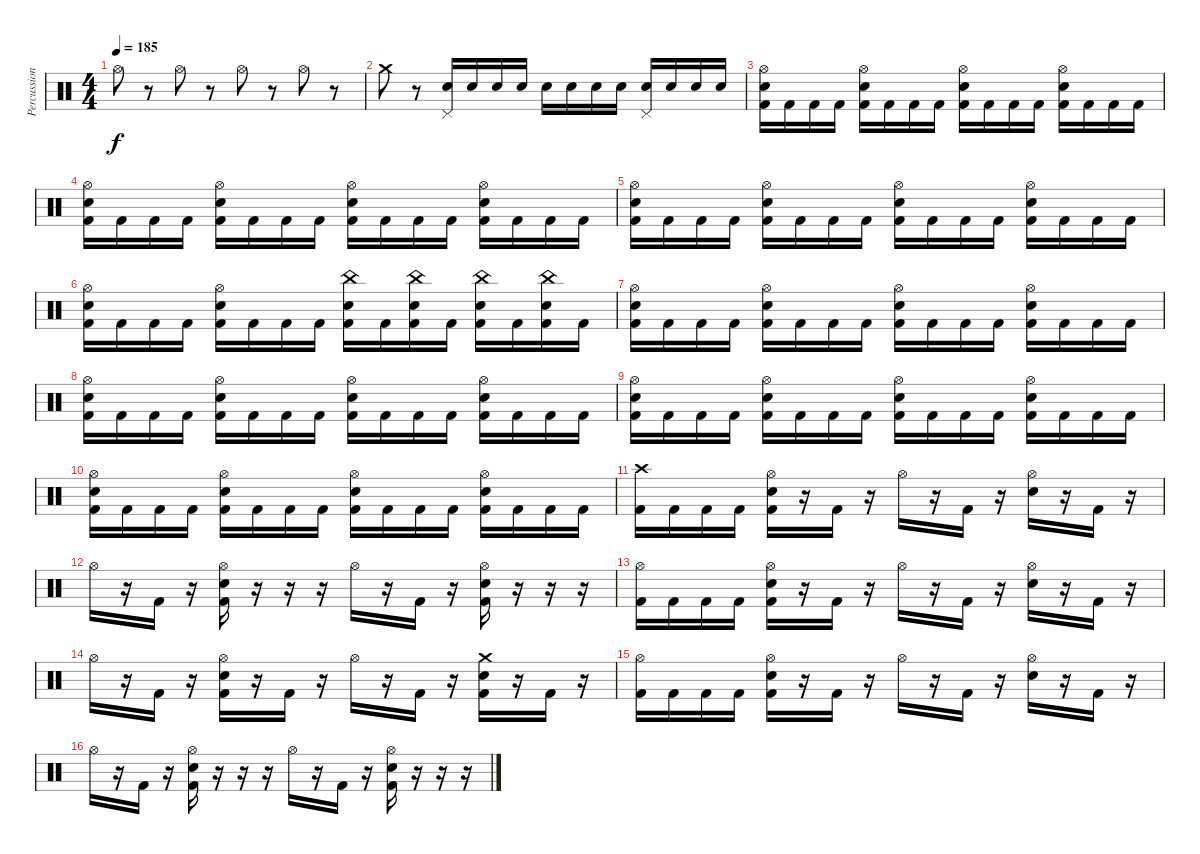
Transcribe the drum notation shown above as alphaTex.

\track ("Percussion" "Percussion") {instrument percussion}
\staff {score}
\articulation defaults
\ts (4 4)
\tempo 185
\clef neutral
\ks c "Hi-Hat (open)".8{dy f}
r.8 "Hi-Hat (open)".8 r.8 "Hi-Hat (open)".8 r.8 "Hi-Hat (open)".8 r.8 |
"Crash medium (hit)".8 r.8 ("Pedal Hi-Hat (hit)" "Electric Snare (hit)").16 "Electric Snare (hit)".16 "Electric Snare (hit)".16 "Electric Snare (hit)".16 "Electric Snare (hit)".16 "Electric Snare (hit)".16 "Electric Snare (hit)".16 "Electric Snare (hit)".16 ("Pedal Hi-Hat (hit)" "Electric Snare (hit)").16 "Electric Snare (hit)".16 "Electric Snare (hit)".16 "Electric Snare (hit)".16 |
("Hi-Hat (open)" "Electric Snare (hit)" "Kick (hit) 2").16 "Kick (hit) 2".16 "Kick (hit) 2".16 "Kick (hit) 2".16 ("Hi-Hat (open)" "Electric Snare (hit)" "Kick (hit) 2").16 "Kick (hit) 2".16 "Kick (hit) 2".16 "Kick (hit) 2".16 ("Hi-Hat (open)" "Electric Snare (hit)" "Kick (hit) 2").16 "Kick (hit) 2".16 "Kick (hit) 2".16 "Kick (hit) 2".16 ("Hi-Hat (open)" "Electric Snare (hit)" "Kick (hit) 2").16 "Kick (hit) 2".16 "Kick (hit) 2".16 "Kick (hit) 2".16 |
("Hi-Hat (open)" "Electric Snare (hit)" "Kick (hit) 2").16 "Kick (hit) 2".16 "Kick (hit) 2".16 "Kick (hit) 2".16 ("Hi-Hat (open)" "Electric Snare (hit)" "Kick (hit) 2").16 "Kick (hit) 2".16 "Kick (hit) 2".16 "Kick (hit) 2".16 ("Hi-Hat (open)" "Electric Snare (hit)" "Kick (hit) 2").16 "Kick (hit) 2".16 "Kick (hit) 2".16 "Kick (hit) 2".16 ("Hi-Hat (open)" "Electric Snare (hit)" "Kick (hit) 2").16 "Kick (hit) 2".16 "Kick (hit) 2".16 "Kick (hit) 2".16 |
("Hi-Hat (open)" "Electric Snare (hit)" "Kick (hit) 2").16 "Kick (hit) 2".16 "Kick (hit) 2".16 "Kick (hit) 2".16 ("Hi-Hat (open)" "Electric Snare (hit)" "Kick (hit) 2").16 "Kick (hit) 2".16 "Kick (hit) 2".16 "Kick (hit) 2".16 ("Hi-Hat (open)" "Electric Snare (hit)" "Kick (hit) 2").16 "Kick (hit) 2".16 "Kick (hit) 2".16 "Kick (hit) 2".16 ("Hi-Hat (open)" "Electric Snare (hit)" "Kick (hit) 2").16 "Kick (hit) 2".16 "Kick (hit) 2".16 "Kick (hit) 2".16 |
("Hi-Hat (open)" "Electric Snare (hit)" "Kick (hit) 2").16 "Kick (hit) 2".16 "Kick (hit) 2".16 "Kick (hit) 2".16 ("Hi-Hat (open)" "Electric Snare (hit)" "Kick (hit) 2").16 "Kick (hit) 2".16 "Kick (hit) 2".16 "Kick (hit) 2".16 ("China (hit)" "Electric Snare (hit)" "Kick (hit) 2").16 "Kick (hit) 2".16 ("China (hit)" "Electric Snare (hit)" "Kick (hit) 2").16 "Kick (hit) 2".16 ("China (hit)" "Electric Snare (hit)" "Kick (hit) 2").16 "Kick (hit) 2".16 ("China (hit)" "Electric Snare (hit)" "Kick (hit) 2").16 "Kick (hit) 2".16 |
("Hi-Hat (open)" "Electric Snare (hit)" "Kick (hit) 2").16 "Kick (hit) 2".16 "Kick (hit) 2".16 "Kick (hit) 2".16 ("Hi-Hat (open)" "Electric Snare (hit)" "Kick (hit) 2").16 "Kick (hit) 2".16 "Kick (hit) 2".16 "Kick (hit) 2".16 ("Hi-Hat (open)" "Electric Snare (hit)" "Kick (hit) 2").16 "Kick (hit) 2".16 "Kick (hit) 2".16 "Kick (hit) 2".16 ("Hi-Hat (open)" "Electric Snare (hit)" "Kick (hit) 2").16 "Kick (hit) 2".16 "Kick (hit) 2".16 "Kick (hit) 2".16 |
("Hi-Hat (open)" "Electric Snare (hit)" "Kick (hit) 2").16 "Kick (hit) 2".16 "Kick (hit) 2".16 "Kick (hit) 2".16 ("Hi-Hat (open)" "Electric Snare (hit)" "Kick (hit) 2").16 "Kick (hit) 2".16 "Kick (hit) 2".16 "Kick (hit) 2".16 ("Hi-Hat (open)" "Electric Snare (hit)" "Kick (hit) 2").16 "Kick (hit) 2".16 "Kick (hit) 2".16 "Kick (hit) 2".16 ("Hi-Hat (open)" "Electric Snare (hit)" "Kick (hit) 2").16 "Kick (hit) 2".16 "Kick (hit) 2".16 "Kick (hit) 2".16 |
("Hi-Hat (open)" "Electric Snare (hit)" "Kick (hit) 2").16 "Kick (hit) 2".16 "Kick (hit) 2".16 "Kick (hit) 2".16 ("Hi-Hat (open)" "Electric Snare (hit)" "Kick (hit) 2").16 "Kick (hit) 2".16 "Kick (hit) 2".16 "Kick (hit) 2".16 ("Hi-Hat (open)" "Electric Snare (hit)" "Kick (hit) 2").16 "Kick (hit) 2".16 "Kick (hit) 2".16 "Kick (hit) 2".16 ("Hi-Hat (open)" "Electric Snare (hit)" "Kick (hit) 2").16 "Kick (hit) 2".16 "Kick (hit) 2".16 "Kick (hit) 2".16 |
("Hi-Hat (open)" "Electric Snare (hit)" "Kick (hit) 2").16 "Kick (hit) 2".16 "Kick (hit) 2".16 "Kick (hit) 2".16 ("Hi-Hat (open)" "Electric Snare (hit)" "Kick (hit) 2").16 "Kick (hit) 2".16 "Kick (hit) 2".16 "Kick (hit) 2".16 ("Hi-Hat (open)" "Electric Snare (hit)" "Kick (hit) 2").16 "Kick (hit) 2".16 "Kick (hit) 2".16 "Kick (hit) 2".16 ("Hi-Hat (open)" "Electric Snare (hit)" "Kick (hit) 2").16 "Kick (hit) 2".16 "Kick (hit) 2".16 "Kick (hit) 2".16 |
("Crash high (hit)" "Kick (hit) 2").16 "Kick (hit) 2".16 "Kick (hit) 2".16 "Kick (hit) 2".16 ("Hi-Hat (open)" "Electric Snare (hit)" "Kick (hit) 2").16 r.16 "Kick (hit) 2".16 r.16 "Hi-Hat (open)".16 r.16 "Kick (hit) 2".16 r.16 ("Hi-Hat (open)" "Electric Snare (hit)").16 r.16 "Kick (hit) 2".16 r.16 |
"Hi-Hat (open)".16 r.16 "Kick (hit) 2".16 r.16 ("Hi-Hat (open)" "Electric Snare (hit)" "Kick (hit) 2").16 r.16 r.16 r.16 "Hi-Hat (open)".16 r.16 "Kick (hit) 2".16 r.16 ("Hi-Hat (open)" "Electric Snare (hit)" "Kick (hit) 2").16 r.16 r.16 r.16 |
("Hi-Hat (open)" "Kick (hit) 2").16 "Kick (hit) 2".16 "Kick (hit) 2".16 "Kick (hit) 2".16 ("Hi-Hat (open)" "Electric Snare (hit)" "Kick (hit) 2").16 r.16 "Kick (hit) 2".16 r.16 "Hi-Hat (open)".16 r.16 "Kick (hit) 2".16 r.16 ("Hi-Hat (open)" "Electric Snare (hit)").16 r.16 "Kick (hit) 2".16 r.16 |
"Hi-Hat (open)".16 r.16 "Kick (hit) 2".16 r.16 ("Hi-Hat (open)" "Electric Snare (hit)" "Kick (hit) 2").16 r.16 "Kick (hit) 2".16 r.16 "Hi-Hat (open)".16 r.16 "Kick (hit) 2".16 r.16 ("Crash medium (hit)" "Electric Snare (hit)" "Kick (hit) 2").16 r.16 "Kick (hit) 2".16 r.16 |
("Hi-Hat (open)" "Kick (hit) 2").16 "Kick (hit) 2".16 "Kick (hit) 2".16 "Kick (hit) 2".16 ("Hi-Hat (open)" "Electric Snare (hit)" "Kick (hit) 2").16 r.16 "Kick (hit) 2".16 r.16 "Hi-Hat (open)".16 r.16 "Kick (hit) 2".16 r.16 ("Hi-Hat (open)" "Electric Snare (hit)").16 r.16 "Kick (hit) 2".16 r.16 |
"Hi-Hat (open)".16 r.16 "Kick (hit) 2".16 r.16 ("Hi-Hat (open)" "Electric Snare (hit)" "Kick (hit) 2").16 r.16 r.16 r.16 "Hi-Hat (open)".16 r.16 "Kick (hit) 2".16 r.16 ("Hi-Hat (open)" "Electric Snare (hit)" "Kick (hit) 2").16 r.16 r.16 r.16
